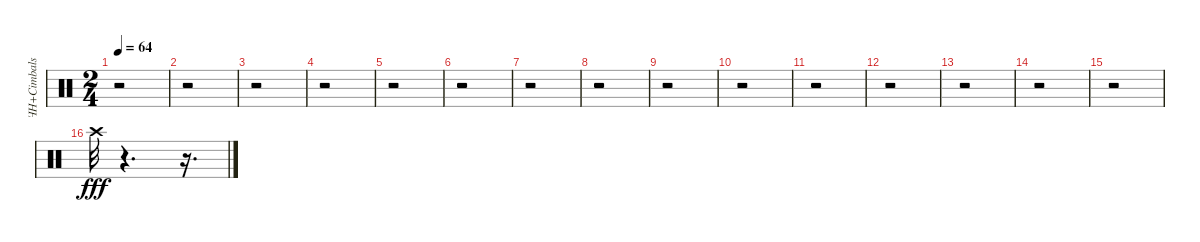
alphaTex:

\track ("HH+Cimbals" "HH+Cimbals") {instrument percussion}
\staff {score}
\articulation defaults
\ts (2 4)
\tempo 64
\clef neutral
\ks c
r.2{dy fff} |
r.2 |
r.2 |
r.2 |
r.2 |
r.2 |
r.2 |
r.2 |
r.2 |
r.2 |
r.2 |
r.2 |
r.2 |
r.2 |
r.2 |
"Crash high (hit)".32 r.4{d} r.16{d}
